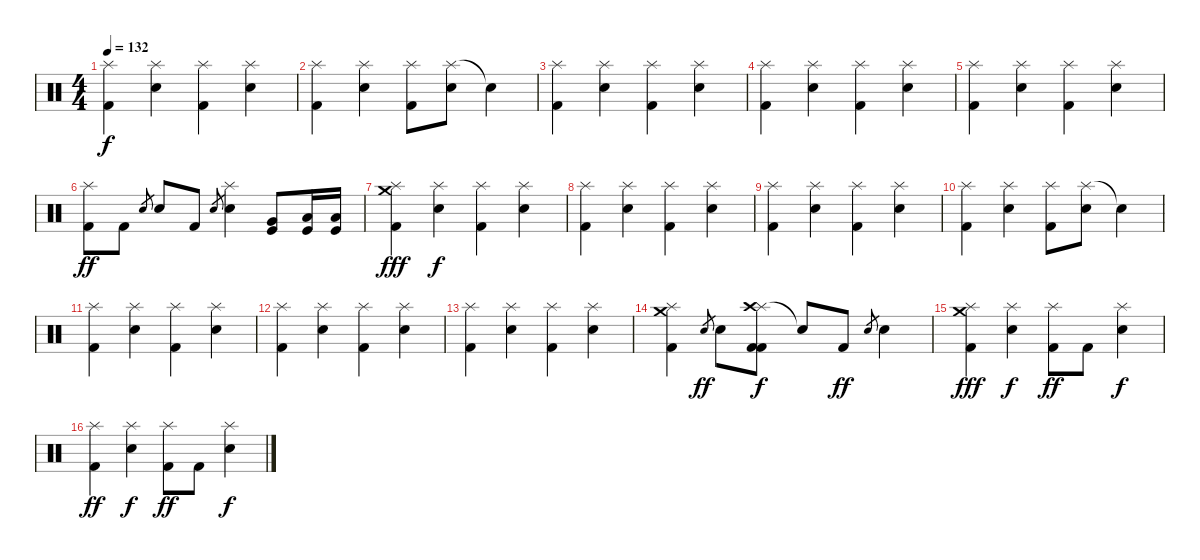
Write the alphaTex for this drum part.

\track "" {instrument percussion}
\staff {score}
\articulation defaults
\ts (4 4)
\tempo 132
\clef neutral
\ks c
("Splash (hit)" "Kick (hit) 2").4{dy f} ("Splash (hit)" "Electric Snare (hit)").4 ("Splash (hit)" "Kick (hit) 2").4 ("Splash (hit)" "Electric Snare (hit)").4 |
("Splash (hit)" "Kick (hit) 2").4 ("Splash (hit)" "Electric Snare (hit)").4 ("Splash (hit)" "Kick (hit) 2").8 ("Splash (hit)" "Electric Snare (hit)").8 "Snare (hit)"{t}.4 |
("Splash (hit)" "Kick (hit) 2").4 ("Splash (hit)" "Electric Snare (hit)").4 ("Splash (hit)" "Kick (hit) 2").4 ("Splash (hit)" "Electric Snare (hit)").4 |
("Splash (hit)" "Kick (hit) 2").4 ("Splash (hit)" "Electric Snare (hit)").4 ("Splash (hit)" "Kick (hit) 2").4 ("Splash (hit)" "Electric Snare (hit)").4 |
("Splash (hit)" "Kick (hit) 2").4 ("Splash (hit)" "Electric Snare (hit)").4 ("Splash (hit)" "Kick (hit) 2").4 ("Splash (hit)" "Electric Snare (hit)").4 |
("Splash (hit)" "Kick (hit) 2").8{dy ff} "Kick (hit) 2".8 "Electric Snare (hit)".8{gr} "Electric Snare (hit)".8 "Kick (hit) 2".8 "Electric Snare (hit)".8{gr} ("Splash (hit)" "Electric Snare (hit)").4 ("Very Low Tom (hit)" "Kick (hit)").8 ("Low Floor Tom (hit)" "Kick (hit)").16 ("Low Floor Tom (hit)" "Kick (hit)").16 |
("Splash (hit)" "Kick (hit) 2" "Crash medium (hit)").4{dy fff} ("Splash (hit)" "Electric Snare (hit)").4{dy f} ("Splash (hit)" "Kick (hit) 2").4 ("Splash (hit)" "Electric Snare (hit)").4 |
("Splash (hit)" "Kick (hit) 2").4 ("Splash (hit)" "Electric Snare (hit)").4 ("Splash (hit)" "Kick (hit) 2").4 ("Splash (hit)" "Electric Snare (hit)").4 |
("Splash (hit)" "Kick (hit) 2").4 ("Splash (hit)" "Electric Snare (hit)").4 ("Splash (hit)" "Kick (hit) 2").4 ("Splash (hit)" "Electric Snare (hit)").4 |
("Splash (hit)" "Kick (hit) 2").4 ("Splash (hit)" "Electric Snare (hit)").4 ("Splash (hit)" "Kick (hit) 2").8 ("Splash (hit)" "Electric Snare (hit)").8 "Snare (hit)"{t}.4 |
("Splash (hit)" "Kick (hit) 2").4 ("Splash (hit)" "Electric Snare (hit)").4 ("Splash (hit)" "Kick (hit) 2").4 ("Splash (hit)" "Electric Snare (hit)").4 |
("Splash (hit)" "Kick (hit) 2").4 ("Splash (hit)" "Electric Snare (hit)").4 ("Splash (hit)" "Kick (hit) 2").4 ("Splash (hit)" "Electric Snare (hit)").4 |
("Splash (hit)" "Kick (hit) 2").4 ("Splash (hit)" "Electric Snare (hit)").4 ("Splash (hit)" "Kick (hit) 2").4 ("Splash (hit)" "Electric Snare (hit)").4 |
("Splash (hit)" "Kick (hit) 2" "Crash medium (hit)").4 "Electric Snare (hit)".8{gr dy ff} "Electric Snare (hit)".8 ("Splash (hit)" "Kick (hit) 2" "Crash high (hit)" "Kick (hit) 2").8{dy f} "Snare (hit)"{t}.8 "Kick (hit) 2".8{dy ff} "Electric Snare (hit)".8{gr} "Electric Snare (hit)".4 |
("Splash (hit)" "Kick (hit) 2" "Crash medium (hit)").4{dy fff} ("Splash (hit)" "Electric Snare (hit)").4{dy f} ("Splash (hit)" "Kick (hit) 2").8{dy ff} "Kick (hit) 2".8 ("Splash (hit)" "Electric Snare (hit)").4{dy f} |
("Splash (hit)" "Kick (hit) 2").4{dy ff} ("Splash (hit)" "Electric Snare (hit)").4{dy f} ("Splash (hit)" "Kick (hit) 2").8{dy ff} "Kick (hit) 2".8 ("Splash (hit)" "Electric Snare (hit)").4{dy f}
